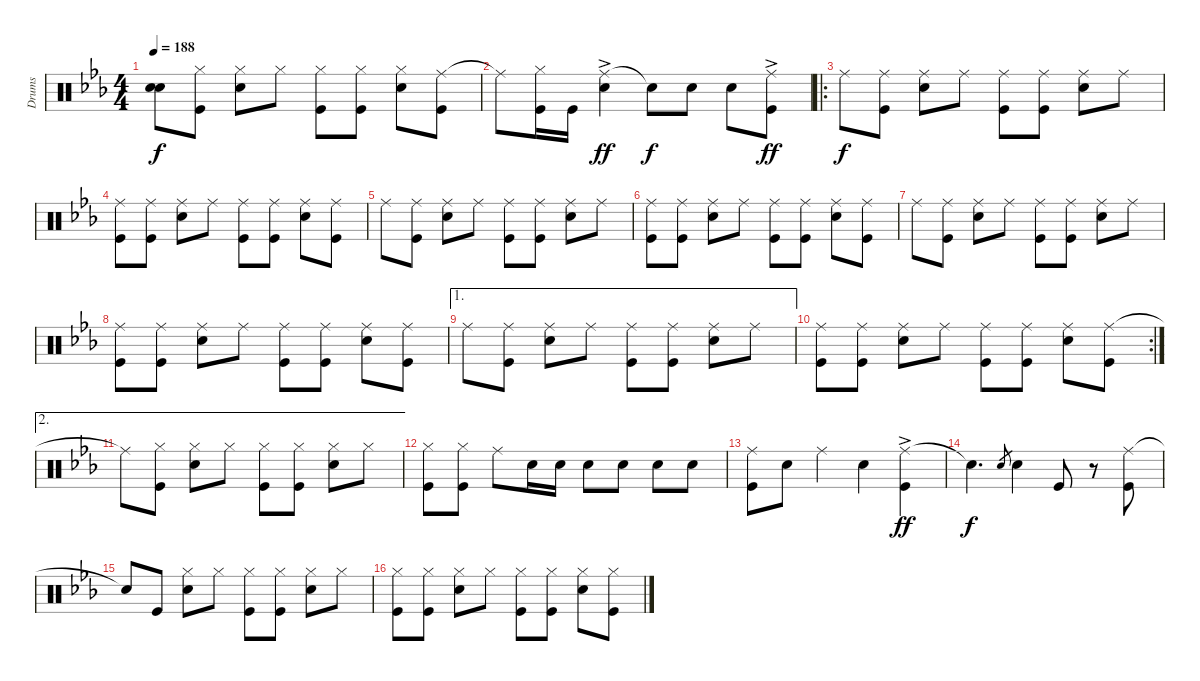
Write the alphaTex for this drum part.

\track ("Drums" "Drums") {instrument percussion}
\staff {score}
\articulation defaults
\ts (4 4)
\tempo 188
\clef neutral
\ks eb
("Snare (hit)"{t} "Snare (hit)"{t}).8{dy f} ("Hi-Hat (closed)" "Kick (hit)").8 ("Hi-Hat (closed)" "Snare (hit) 2").8 "Hi-Hat (closed)".8 ("Hi-Hat (closed)" "Kick (hit)").8 ("Hi-Hat (closed)" "Kick (hit)").8 ("Hi-Hat (closed)" "Snare (hit) 2").8 ("Ride (middle)" "Kick (hit)").8 |
"Ride (middle)"{t}.8{beam Down} ("Hi-Hat (closed)" "Kick (hit)").16{beam Down} "Kick (hit)".16{beam Down} ("Ride (middle)"{ac} "Snare (hit) 2").4{dy ff} "Snare (hit)"{t}.8{dy f} "Snare (hit) 2".8 "Snare (hit) 2".8 ("Ride (middle)"{ac} "Kick (hit)").8{dy ff} |
\ro "Ride (middle)".8{dy f}
("Ride (middle)" "Kick (hit)").8 ("Ride (middle)" "Snare (hit) 2").8 "Ride (middle)".8 ("Ride (middle)" "Kick (hit)").8 ("Ride (middle)" "Kick (hit)").8 ("Ride (middle)" "Snare (hit) 2").8 "Ride (middle)".8 |
("Ride (middle)" "Kick (hit)").8 ("Ride (middle)" "Kick (hit)").8 ("Ride (middle)" "Snare (hit) 2").8 "Ride (middle)".8 ("Ride (middle)" "Kick (hit)").8 ("Ride (middle)" "Kick (hit)").8 ("Ride (middle)" "Snare (hit) 2").8 ("Ride (middle)" "Kick (hit)").8 |
"Ride (middle)".8 ("Ride (middle)" "Kick (hit)").8 ("Ride (middle)" "Snare (hit) 2").8 "Ride (middle)".8 ("Ride (middle)" "Kick (hit)").8 ("Ride (middle)" "Kick (hit)").8 ("Ride (middle)" "Snare (hit) 2").8 "Ride (middle)".8 |
("Ride (middle)" "Kick (hit)").8 ("Ride (middle)" "Kick (hit)").8 ("Ride (middle)" "Snare (hit) 2").8 "Ride (middle)".8 ("Ride (middle)" "Kick (hit)").8 ("Ride (middle)" "Kick (hit)").8 ("Ride (middle)" "Snare (hit) 2").8 ("Ride (middle)" "Kick (hit)").8 |
"Ride (middle)".8 ("Ride (middle)" "Kick (hit)").8 ("Ride (middle)" "Snare (hit) 2").8 "Ride (middle)".8 ("Ride (middle)" "Kick (hit)").8 ("Ride (middle)" "Kick (hit)").8 ("Ride (middle)" "Snare (hit) 2").8 "Ride (middle)".8 |
("Ride (middle)" "Kick (hit)").8 ("Ride (middle)" "Kick (hit)").8 ("Ride (middle)" "Snare (hit) 2").8 "Ride (middle)".8 ("Ride (middle)" "Kick (hit)").8 ("Ride (middle)" "Kick (hit)").8 ("Ride (middle)" "Snare (hit) 2").8 ("Ride (middle)" "Kick (hit)").8 |
\ae 1 "Ride (middle)".8
("Ride (middle)" "Kick (hit)").8 ("Ride (middle)" "Snare (hit) 2").8 "Ride (middle)".8 ("Ride (middle)" "Kick (hit)").8 ("Ride (middle)" "Kick (hit)").8 ("Ride (middle)" "Snare (hit) 2").8 "Ride (middle)".8 |
\rc 2
("Ride (middle)" "Kick (hit)").8 ("Ride (middle)" "Kick (hit)").8 ("Ride (middle)" "Snare (hit) 2").8 "Ride (middle)".8 ("Ride (middle)" "Kick (hit)").8 ("Ride (middle)" "Kick (hit)").8 ("Ride (middle)" "Snare (hit) 2").8 ("Ride (middle)" "Kick (hit)").8 |
\ae 2 "Ride (middle)"{t}.8
("Hi-Hat (closed)" "Kick (hit)").8 ("Hi-Hat (closed)" "Snare (hit) 2").8 "Hi-Hat (closed)".8 ("Hi-Hat (closed)" "Kick (hit)").8 ("Hi-Hat (closed)" "Kick (hit)").8 ("Hi-Hat (closed)" "Snare (hit) 2").8 "Hi-Hat (closed)".8 |
("Hi-Hat (closed)" "Kick (hit)").8 ("Hi-Hat (closed)" "Kick (hit)").8 "Ride (middle)".8 "Snare (hit) 2".16 "Snare (hit) 2".16 "Snare (hit) 2".8 "Snare (hit) 2".8 "Snare (hit) 2".8 "Snare (hit) 2".8 |
("Ride (middle)" "Kick (hit)").8 "Snare (hit) 2".8 "Ride (middle)".4 "Snare (hit) 2".4 ("Ride (middle)"{ac} "Kick (hit)").4{dy ff} |
"Snare (hit)"{t}.4{d dy f} "Snare (hit) 2".8{gr} "Snare (hit) 2".4 "Kick (hit)".8 r.8 ("Ride (middle)" "Kick (hit)").8 |
"Snare (hit)"{t}.8 "Kick (hit)".8 ("Hi-Hat (closed)" "Snare (hit) 2").8 "Hi-Hat (closed)".8 ("Hi-Hat (closed)" "Kick (hit)").8 ("Hi-Hat (closed)" "Kick (hit)").8 ("Hi-Hat (closed)" "Snare (hit) 2").8 "Hi-Hat (closed)".8 |
("Hi-Hat (closed)" "Kick (hit)").8 ("Hi-Hat (closed)" "Kick (hit)").8 ("Hi-Hat (closed)" "Snare (hit) 2").8 "Hi-Hat (closed)".8 ("Hi-Hat (closed)" "Kick (hit)").8 ("Hi-Hat (closed)" "Kick (hit)").8 ("Hi-Hat (closed)" "Snare (hit) 2").8 ("Hi-Hat (closed)" "Kick (hit)").8
